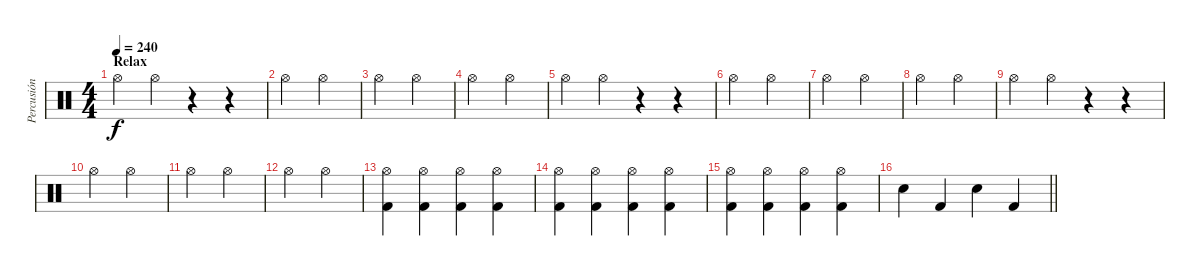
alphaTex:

\track ("Percusión" "Percusión") {instrument percussion}
\staff {score}
\articulation defaults
\ts (4 4)
\section ("" "Relax")
\tempo 240
\clef neutral
\ks c "Hi-Hat (open)".4{dy f} "Hi-Hat (open)".4
r.4 r.4 |
"Hi-Hat (open)".4 "Hi-Hat (open)".4 |
"Hi-Hat (open)".4 "Hi-Hat (open)".4 |
"Hi-Hat (open)".4 "Hi-Hat (open)".4 |
"Hi-Hat (open)".4 "Hi-Hat (open)".4 r.4 r.4 |
"Hi-Hat (open)".4 "Hi-Hat (open)".4 |
"Hi-Hat (open)".4 "Hi-Hat (open)".4 |
"Hi-Hat (open)".4 "Hi-Hat (open)".4 |
"Hi-Hat (open)".4 "Hi-Hat (open)".4 r.4 r.4 |
"Hi-Hat (open)".4 "Hi-Hat (open)".4 |
"Hi-Hat (open)".4 "Hi-Hat (open)".4 |
"Hi-Hat (open)".4 "Hi-Hat (open)".4 |
("Hi-Hat (open)" "Kick (hit) 2").4 ("Hi-Hat (open)" "Kick (hit) 2").4 ("Hi-Hat (open)" "Kick (hit) 2").4 ("Hi-Hat (open)" "Kick (hit) 2").4 |
("Hi-Hat (open)" "Kick (hit) 2").4 ("Hi-Hat (open)" "Kick (hit) 2").4 ("Hi-Hat (open)" "Kick (hit) 2").4 ("Hi-Hat (open)" "Kick (hit) 2").4 |
("Hi-Hat (open)" "Kick (hit) 2").4 ("Hi-Hat (open)" "Kick (hit) 2").4 ("Hi-Hat (open)" "Kick (hit) 2").4 ("Hi-Hat (open)" "Kick (hit) 2").4 |
\barLineRight lightlight "Electric Snare (hit)".4 "Kick (hit) 2".4 "Electric Snare (hit)".4 "Kick (hit) 2".4
